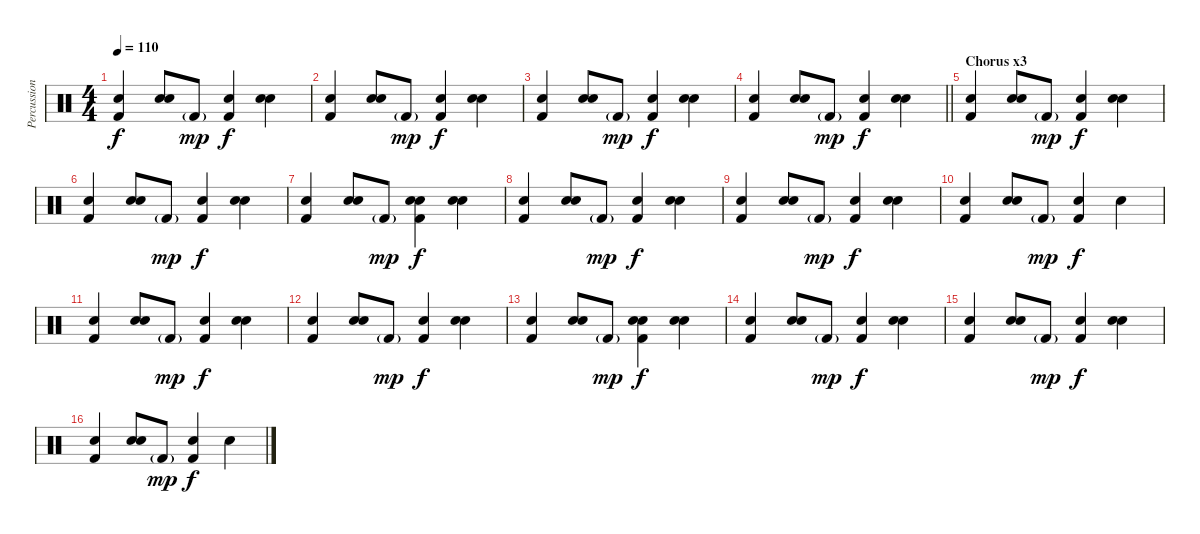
\track ("Percussion" "Percussion") {instrument percussion}
\staff {score}
\articulation defaults
\ts (4 4)
\tempo 110
\clef neutral
\ks c
("Hand Clap (hit)" "Kick (hit) 2").4{dy f} ("Snare (hit) 2" "Hand Clap (hit)").8 "Kick (hit) 2"{g}.8{dy mp} ("Hand Clap (hit)" "Kick (hit) 2").4{dy f} ("Snare (hit) 2" "Hand Clap (hit)").4 |
("Hand Clap (hit)" "Kick (hit) 2").4 ("Snare (hit) 2" "Hand Clap (hit)").8 "Kick (hit) 2"{g}.8{dy mp} ("Hand Clap (hit)" "Kick (hit) 2").4{dy f} ("Snare (hit) 2" "Hand Clap (hit)").4 |
("Hand Clap (hit)" "Kick (hit) 2").4 ("Snare (hit) 2" "Hand Clap (hit)").8 "Kick (hit) 2"{g}.8{dy mp} ("Hand Clap (hit)" "Kick (hit) 2").4{dy f} ("Snare (hit) 2" "Hand Clap (hit)").4 |
\barLineRight lightlight
("Hand Clap (hit)" "Kick (hit) 2").4 ("Snare (hit) 2" "Hand Clap (hit)").8 "Kick (hit) 2"{g}.8{dy mp} ("Hand Clap (hit)" "Kick (hit) 2").4{dy f} ("Snare (hit) 2" "Hand Clap (hit)").4 |
\section ("" "Chorus x3")
("Hand Clap (hit)" "Kick (hit) 2").4 ("Snare (hit) 2" "Hand Clap (hit)").8 "Kick (hit) 2"{g}.8{dy mp} ("Hand Clap (hit)" "Kick (hit) 2").4{dy f} ("Snare (hit) 2" "Hand Clap (hit)").4 |
("Hand Clap (hit)" "Kick (hit) 2").4 ("Snare (hit) 2" "Hand Clap (hit)").8 "Kick (hit) 2"{g}.8{dy mp} ("Hand Clap (hit)" "Kick (hit) 2").4{dy f} ("Snare (hit) 2" "Hand Clap (hit)").4 |
("Hand Clap (hit)" "Kick (hit) 2").4 ("Snare (hit) 2" "Hand Clap (hit)").8 "Kick (hit) 2"{g}.8{dy mp} ("Snare (hit) 2" "Hand Clap (hit)" "Kick (hit) 2").4{dy f} ("Snare (hit) 2" "Hand Clap (hit)").4 |
("Hand Clap (hit)" "Kick (hit) 2").4 ("Snare (hit) 2" "Hand Clap (hit)").8 "Kick (hit) 2"{g}.8{dy mp} ("Hand Clap (hit)" "Kick (hit) 2").4{dy f} ("Snare (hit) 2" "Hand Clap (hit)").4 |
("Hand Clap (hit)" "Kick (hit) 2").4 ("Snare (hit) 2" "Hand Clap (hit)").8 "Kick (hit) 2"{g}.8{dy mp} ("Hand Clap (hit)" "Kick (hit) 2").4{dy f} ("Snare (hit) 2" "Hand Clap (hit)").4 |
("Hand Clap (hit)" "Kick (hit) 2").4 ("Snare (hit) 2" "Hand Clap (hit)").8 "Kick (hit) 2"{g}.8{dy mp} ("Hand Clap (hit)" "Kick (hit) 2").4{dy f} "Hand Clap (hit)".4 |
("Hand Clap (hit)" "Kick (hit) 2").4 ("Snare (hit) 2" "Hand Clap (hit)").8 "Kick (hit) 2"{g}.8{dy mp} ("Hand Clap (hit)" "Kick (hit) 2").4{dy f} ("Snare (hit) 2" "Hand Clap (hit)").4 |
("Hand Clap (hit)" "Kick (hit) 2").4 ("Snare (hit) 2" "Hand Clap (hit)").8 "Kick (hit) 2"{g}.8{dy mp} ("Hand Clap (hit)" "Kick (hit) 2").4{dy f} ("Snare (hit) 2" "Hand Clap (hit)").4 |
("Hand Clap (hit)" "Kick (hit) 2").4 ("Snare (hit) 2" "Hand Clap (hit)").8 "Kick (hit) 2"{g}.8{dy mp} ("Snare (hit) 2" "Hand Clap (hit)" "Kick (hit) 2").4{dy f} ("Snare (hit) 2" "Hand Clap (hit)").4 |
("Hand Clap (hit)" "Kick (hit) 2").4 ("Snare (hit) 2" "Hand Clap (hit)").8 "Kick (hit) 2"{g}.8{dy mp} ("Hand Clap (hit)" "Kick (hit) 2").4{dy f} ("Snare (hit) 2" "Hand Clap (hit)").4 |
("Hand Clap (hit)" "Kick (hit) 2").4 ("Snare (hit) 2" "Hand Clap (hit)").8 "Kick (hit) 2"{g}.8{dy mp} ("Hand Clap (hit)" "Kick (hit) 2").4{dy f} ("Snare (hit) 2" "Hand Clap (hit)").4 |
("Hand Clap (hit)" "Kick (hit) 2").4 ("Snare (hit) 2" "Hand Clap (hit)").8 "Kick (hit) 2"{g}.8{dy mp} ("Hand Clap (hit)" "Kick (hit) 2").4{dy f} "Hand Clap (hit)".4
